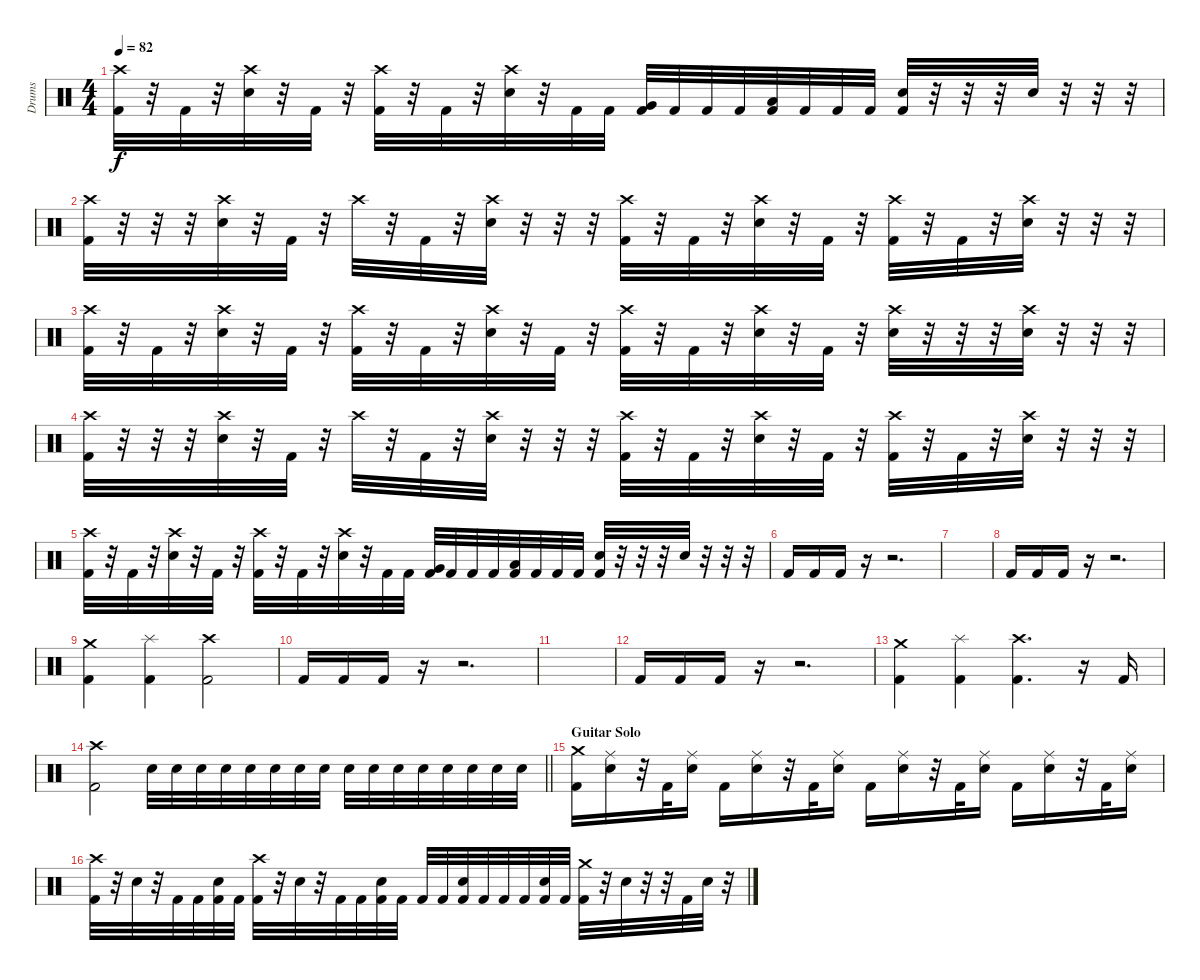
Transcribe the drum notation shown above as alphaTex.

\track ("Drums" "Drums") {instrument percussion}
\staff {score}
\articulation defaults
\ts (4 4)
\tempo 82
\clef neutral
\ks c
("Crash high (hit)" "Kick (hit) 2").32{dy f} r.32 "Kick (hit) 2".32 r.32 ("Crash high (hit)" "Electric Snare (hit)").32 r.32 "Kick (hit) 2".32 r.32 ("Crash high (hit)" "Kick (hit) 2").32 r.32 "Kick (hit) 2".32 r.32 ("Crash high (hit)" "Electric Snare (hit)").32 r.32 "Kick (hit) 2".32 "Kick (hit) 2".32 ("Very Low Tom (hit)" "Kick (hit) 2").32 "Kick (hit) 2".32 "Kick (hit) 2".32 "Kick (hit) 2".32 ("Low Tom (hit)" "Kick (hit) 2").32 "Kick (hit) 2".32 "Kick (hit) 2".32 "Kick (hit) 2".32 ("Electric Snare (hit)" "Kick (hit) 2").32 r.32 r.32 r.32 "Electric Snare (hit)".32 r.32 r.32 r.32 |
("Crash high (hit)" "Kick (hit) 2").32 r.32 r.32 r.32 ("Crash high (hit)" "Electric Snare (hit)").32 r.32 "Kick (hit) 2".32 r.32 "Crash high (hit)".32 r.32 "Kick (hit) 2".32 r.32 ("Crash high (hit)" "Electric Snare (hit)").32 r.32 r.32 r.32 ("Crash high (hit)" "Kick (hit) 2").32 r.32 "Kick (hit) 2".32 r.32 ("Crash high (hit)" "Electric Snare (hit)").32 r.32 "Kick (hit) 2".32 r.32 ("Crash high (hit)" "Kick (hit) 2").32 r.32 "Kick (hit) 2".32 r.32 ("Crash high (hit)" "Electric Snare (hit)").32 r.32 r.32 r.32 |
("Crash high (hit)" "Kick (hit) 2").32 r.32 "Kick (hit) 2".32 r.32 ("Crash high (hit)" "Electric Snare (hit)").32 r.32 "Kick (hit) 2".32 r.32 ("Crash high (hit)" "Kick (hit) 2").32 r.32 "Kick (hit) 2".32 r.32 ("Crash high (hit)" "Electric Snare (hit)").32 r.32 "Kick (hit) 2".32 r.32 ("Crash high (hit)" "Kick (hit) 2").32 r.32 "Kick (hit) 2".32 r.32 ("Crash high (hit)" "Electric Snare (hit)").32 r.32 "Kick (hit) 2".32 r.32 ("Crash high (hit)" "Electric Snare (hit)").32 r.32 r.32 r.32 ("Crash high (hit)" "Electric Snare (hit)").32 r.32 r.32 r.32 |
("Crash high (hit)" "Kick (hit) 2").32 r.32 r.32 r.32 ("Crash high (hit)" "Electric Snare (hit)").32 r.32 "Kick (hit) 2".32 r.32 "Crash high (hit)".32 r.32 "Kick (hit) 2".32 r.32 ("Crash high (hit)" "Electric Snare (hit)").32 r.32 r.32 r.32 ("Crash high (hit)" "Kick (hit) 2").32 r.32 "Kick (hit) 2".32 r.32 ("Crash high (hit)" "Electric Snare (hit)").32 r.32 "Kick (hit) 2".32 r.32 ("Crash high (hit)" "Kick (hit) 2").32 r.32 "Kick (hit) 2".32 r.32 ("Crash high (hit)" "Electric Snare (hit)").32 r.32 r.32 r.32 |
("Crash high (hit)" "Kick (hit) 2").32 r.32 "Kick (hit) 2".32 r.32 ("Crash high (hit)" "Electric Snare (hit)").32 r.32 "Kick (hit) 2".32 r.32 ("Crash high (hit)" "Kick (hit) 2").32 r.32 "Kick (hit) 2".32 r.32 ("Crash high (hit)" "Electric Snare (hit)").32 r.32 "Kick (hit) 2".32 "Kick (hit) 2".32 ("Very Low Tom (hit)" "Kick (hit) 2").32 "Kick (hit) 2".32 "Kick (hit) 2".32 "Kick (hit) 2".32 ("Low Tom (hit)" "Kick (hit) 2").32 "Kick (hit) 2".32 "Kick (hit) 2".32 "Kick (hit) 2".32 ("Electric Snare (hit)" "Kick (hit) 2").32 r.32 r.32 r.32 "Electric Snare (hit)".32 r.32 r.32 r.32 |
"Kick (hit) 2".16 "Kick (hit) 2".16 "Kick (hit) 2".16 r.16 r.2{d} |
|
"Kick (hit) 2".16 "Kick (hit) 2".16 "Kick (hit) 2".16 r.16 r.2{d} |
("Crash medium (hit)" "Kick (hit) 2").4 ("Splash (hit)" "Kick (hit) 2").4 ("Crash high (hit)" "Kick (hit) 2").2 |
"Kick (hit) 2".16 "Kick (hit) 2".16 "Kick (hit) 2".16 r.16 r.2{d} |
|
"Kick (hit) 2".16 "Kick (hit) 2".16 "Kick (hit) 2".16 r.16 r.2{d} |
("Crash medium (hit)" "Kick (hit) 2").4 ("Splash (hit)" "Kick (hit) 2").4 ("Crash high (hit)" "Kick (hit) 2").4{d} r.16 "Kick (hit) 2".16 |
\barLineRight lightlight
("Crash high (hit)" "Kick (hit) 2").2 "Electric Snare (hit)".32 "Electric Snare (hit)".32 "Electric Snare (hit)".32 "Electric Snare (hit)".32 "Electric Snare (hit)".32 "Electric Snare (hit)".32 "Electric Snare (hit)".32 "Electric Snare (hit)".32 "Electric Snare (hit)".32 "Electric Snare (hit)".32 "Electric Snare (hit)".32 "Electric Snare (hit)".32 "Electric Snare (hit)".32 "Electric Snare (hit)".32 "Electric Snare (hit)".32 "Electric Snare (hit)".32 |
\section ("" "Guitar Solo")
("Crash medium (hit)" "Kick (hit) 2").16 ("Ride (middle)" "Electric Snare (hit)").16 r.32 "Kick (hit) 2".32 ("Ride (middle)" "Electric Snare (hit)").16 "Kick (hit) 2".16 ("Ride (middle)" "Electric Snare (hit)").16 r.32 "Kick (hit) 2".32 ("Ride (middle)" "Electric Snare (hit)").16 "Kick (hit) 2".16 ("Ride (middle)" "Electric Snare (hit)").16 r.32 "Kick (hit) 2".32 ("Ride (middle)" "Electric Snare (hit)").16 "Kick (hit) 2".16 ("Ride (middle)" "Electric Snare (hit)").16 r.32 "Kick (hit) 2".32 ("Ride (middle)" "Electric Snare (hit)").16 |
("Crash high (hit)" "Kick (hit) 2").32 r.32 "Electric Snare (hit)".32 r.32 "Kick (hit) 2".32 "Kick (hit) 2".32 ("Electric Snare (hit)" "Kick (hit) 2").32 "Kick (hit) 2".32 ("Crash high (hit)" "Kick (hit) 2").32 r.32 "Electric Snare (hit)".32 r.32 "Kick (hit) 2".32 "Kick (hit) 2".32 ("Electric Snare (hit)" "Kick (hit) 2").32 "Kick (hit) 2".32 "Kick (hit) 2".32 "Kick (hit) 2".32 ("Electric Snare (hit)" "Kick (hit) 2").32 "Kick (hit) 2".32 "Kick (hit) 2".32 "Kick (hit) 2".32 ("Electric Snare (hit)" "Kick (hit) 2").32 "Kick (hit) 2".32 ("Crash medium (hit)" "Kick (hit) 2").32 r.32 "Electric Snare (hit)".32 r.32 r.32 "Kick (hit) 2".32 "Electric Snare (hit)".32 r.32
